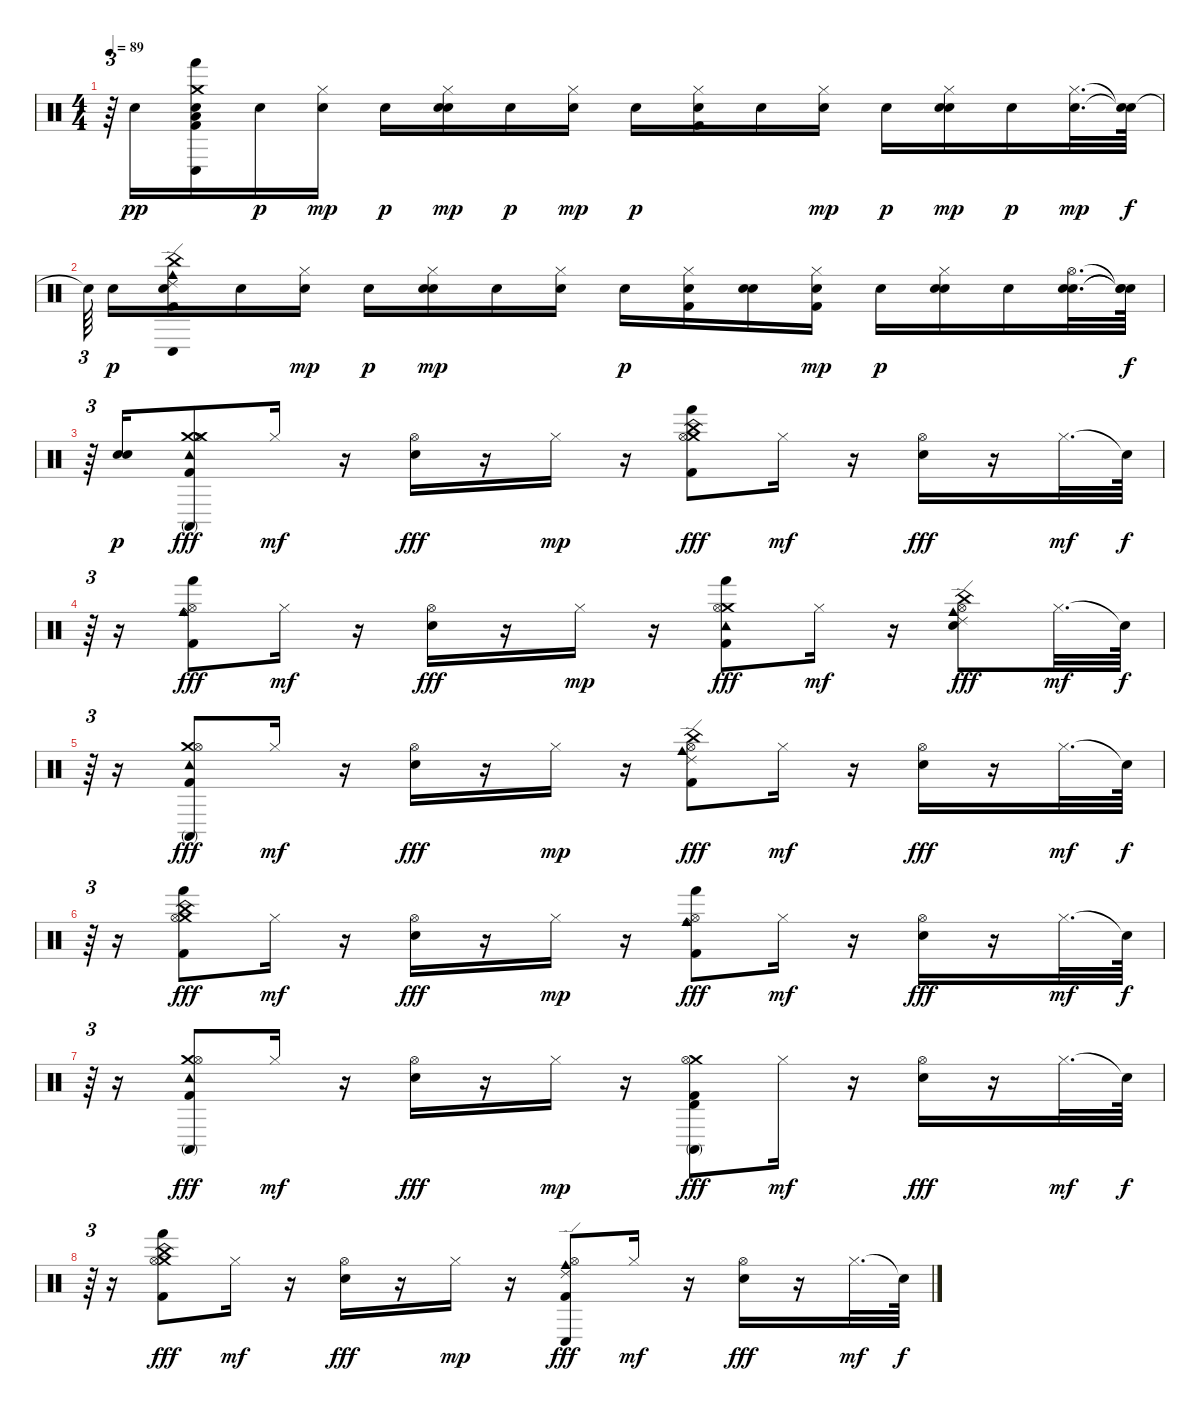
\track "" {instrument percussion}
\staff {score}
\articulation defaults
\ts (4 4)
\tempo 89
\clef neutral
\ks c
r.64{tu (3 2) dy f} "Electric Snare (hit)".16{dy pp} ("Low Tom (hit)" "Crash medium (hit)" "Hand (hit)" "Conga low (hit)" "Kick (hit) 2" "Electric Snare (hit)").16 "Electric Snare (hit)".16{dy p} ("Electric Snare (hit)" "Hi-Hat (closed)").16{dy mp} "Electric Snare (hit)".16{dy p} ("Snare (hit) 2" "Electric Snare (hit)" "Hi-Hat (closed)").16{dy mp} "Electric Snare (hit)".16{dy p} ("Electric Snare (hit)" "Hi-Hat (closed)").16{dy mp} "Electric Snare (hit)".16{dy p} ("Kick (hit) 2" "Electric Snare (hit)" "Hi-Hat (closed)").16 "Electric Snare (hit)".16 ("Electric Snare (hit)" "Hi-Hat (closed)").16{dy mp} "Electric Snare (hit)".16{dy p} ("Snare (hit) 2" "Electric Snare (hit)" "Hi-Hat (closed)").16{dy mp} "Electric Snare (hit)".16{dy p} ("Electric Snare (hit)" "Hi-Hat (closed)").32{d dy mp} ("Snare (hit)"{t} "Snare (hit)"{t}).64{dy f} |
"Snare (hit)"{t}.64{tu (3 2) beam splitsecondary} "Electric Snare (hit)".16{dy p} ("China (hit)" "Cowbell medium (hit)" "Ride (edge) 2" "Conga low (hit)" "Kick (hit) 2" "Electric Snare (hit)").16 "Electric Snare (hit)".16 ("Electric Snare (hit)" "Hi-Hat (closed)").16{dy mp} "Electric Snare (hit)".16{dy p} ("Snare (hit) 2" "Electric Snare (hit)" "Hi-Hat (closed)").16{dy mp} "Electric Snare (hit)".16 ("Electric Snare (hit)" "Hi-Hat (closed)").16 "Electric Snare (hit)".16{dy p} ("Kick (hit) 2" "Electric Snare (hit)" "Hi-Hat (closed)").16 ("Snare (hit) 2" "Electric Snare (hit)").16 ("Kick (hit) 2" "Electric Snare (hit)" "Hi-Hat (closed)").16{dy mp} "Electric Snare (hit)".16{dy p} ("Snare (hit) 2" "Electric Snare (hit)" "Hi-Hat (closed)").16 "Electric Snare (hit)".16 ("Snare (hit) 2" "Electric Snare (hit)" "Hi-Hat (open)").32{d} ("Snare (hit)"{t} "Snare (hit)"{t} "Snare (hit)"{t}).64{dy f} |
r.64{tu (3 2)} ("Snare (hit) 2" "Electric Snare (hit)").16{dy p} ("Tambourine (hit)" "Crash medium (hit)" "Conga high (mute)" "Kick (hit) 2" "Hi-Hat (open)" "Crash medium (hit)").8{dy fff} "Hi-Hat (closed)".16{dy mf} r.16 ("Snare (hit) 2" "Hi-Hat (open)").16{dy fff} r.16 "Hi-Hat (closed)".16{dy mp} r.16 ("China (hit)" "Crash medium (hit)" "Hand (hit)" "Kick (hit) 2" "Hi-Hat (open)").8{dy fff} "Hi-Hat (closed)".16{dy mf} r.16 ("Snare (hit) 2" "Hi-Hat (open)").16{dy fff} r.16 "Hi-Hat (closed)".32{d dy mf} "Snare (hit)"{t}.64{dy f} |
r.64{tu (3 2)} r.16 ("Ride (bell)" "Cowbell medium (hit)" "Hand (hit)" "Kick (hit) 2" "Hi-Hat (open)").8{dy fff} "Hi-Hat (closed)".16{dy mf} r.16 ("Snare (hit) 2" "Hi-Hat (open)").16{dy fff} r.16 "Hi-Hat (closed)".16{dy mp} r.16 ("Tambourine (hit)" "Crash medium (hit)" "Hand (hit)" "Kick (hit) 2" "Hi-Hat (open)").8{dy fff} "Hi-Hat (closed)".16{dy mf} r.16 ("China (hit)" "Cowbell medium (hit)" "Ride (edge) 2" "Snare (hit) 2" "Hi-Hat (open)").8{dy fff} "Hi-Hat (closed)".32{d dy mf} "Snare (hit)"{t}.64{dy f} |
r.64{tu (3 2)} r.16 ("Tambourine (hit)" "Crash medium (hit)" "Conga high (mute)" "Kick (hit) 2" "Hi-Hat (open)").8{dy fff} "Hi-Hat (closed)".16{dy mf} r.16 ("Snare (hit) 2" "Hi-Hat (open)").16{dy fff} r.16 "Hi-Hat (closed)".16{dy mp} r.16 ("China (hit)" "Cowbell medium (hit)" "Ride (edge) 2" "Kick (hit) 2" "Hi-Hat (open)").8{dy fff} "Hi-Hat (closed)".16{dy mf} r.16 ("Snare (hit) 2" "Hi-Hat (open)").16{dy fff} r.16 "Hi-Hat (closed)".32{d dy mf} "Snare (hit)"{t}.64{dy f} |
r.64{tu (3 2)} r.16 ("China (hit)" "Crash medium (hit)" "Hand (hit)" "Kick (hit) 2" "Hi-Hat (open)").8{dy fff} "Hi-Hat (closed)".16{dy mf} r.16 ("Snare (hit) 2" "Hi-Hat (open)").16{dy fff} r.16 "Hi-Hat (closed)".16{dy mp} r.16 ("Ride (bell)" "Cowbell medium (hit)" "Hand (hit)" "Kick (hit) 2" "Hi-Hat (open)").8{dy fff} "Hi-Hat (closed)".16{dy mf} r.16 ("Snare (hit) 2" "Hi-Hat (open)").16{dy fff} r.16 "Hi-Hat (closed)".32{d dy mf} "Snare (hit)"{t}.64{dy f} |
r.64{tu (3 2)} r.16 ("Tambourine (hit)" "Crash medium (hit)" "Conga high (mute)" "Kick (hit) 2" "Hi-Hat (open)").8{dy fff} "Hi-Hat (closed)".16{dy mf} r.16 ("Snare (hit) 2" "Hi-Hat (open)").16{dy fff} r.16 "Hi-Hat (closed)".16{dy mp} r.16 ("Crash medium (hit)" "Conga high (mute)" "Timbale high (hit)" "Kick (hit) 2" "Hi-Hat (open)").8{dy fff} "Hi-Hat (closed)".16{dy mf} r.16 ("Snare (hit) 2" "Hi-Hat (open)").16{dy fff} r.16 "Hi-Hat (closed)".32{d dy mf} "Snare (hit)"{t}.64{dy f} |
r.64{tu (3 2)} r.16 ("China (hit)" "Crash medium (hit)" "Hand (hit)" "Kick (hit) 2" "Hi-Hat (open)").8{dy fff} "Hi-Hat (closed)".16{dy mf} r.16 ("Snare (hit) 2" "Hi-Hat (open)").16{dy fff} r.16 "Hi-Hat (closed)".16{dy mp} r.16 ("Cowbell medium (hit)" "Ride (edge) 2" "Conga low (hit)" "Kick (hit) 2" "Hi-Hat (open)").8{dy fff} "Hi-Hat (closed)".16{dy mf} r.16 ("Snare (hit) 2" "Hi-Hat (open)").16{dy fff} r.16 "Hi-Hat (closed)".32{d dy mf} "Snare (hit)"{t}.64{dy f}
